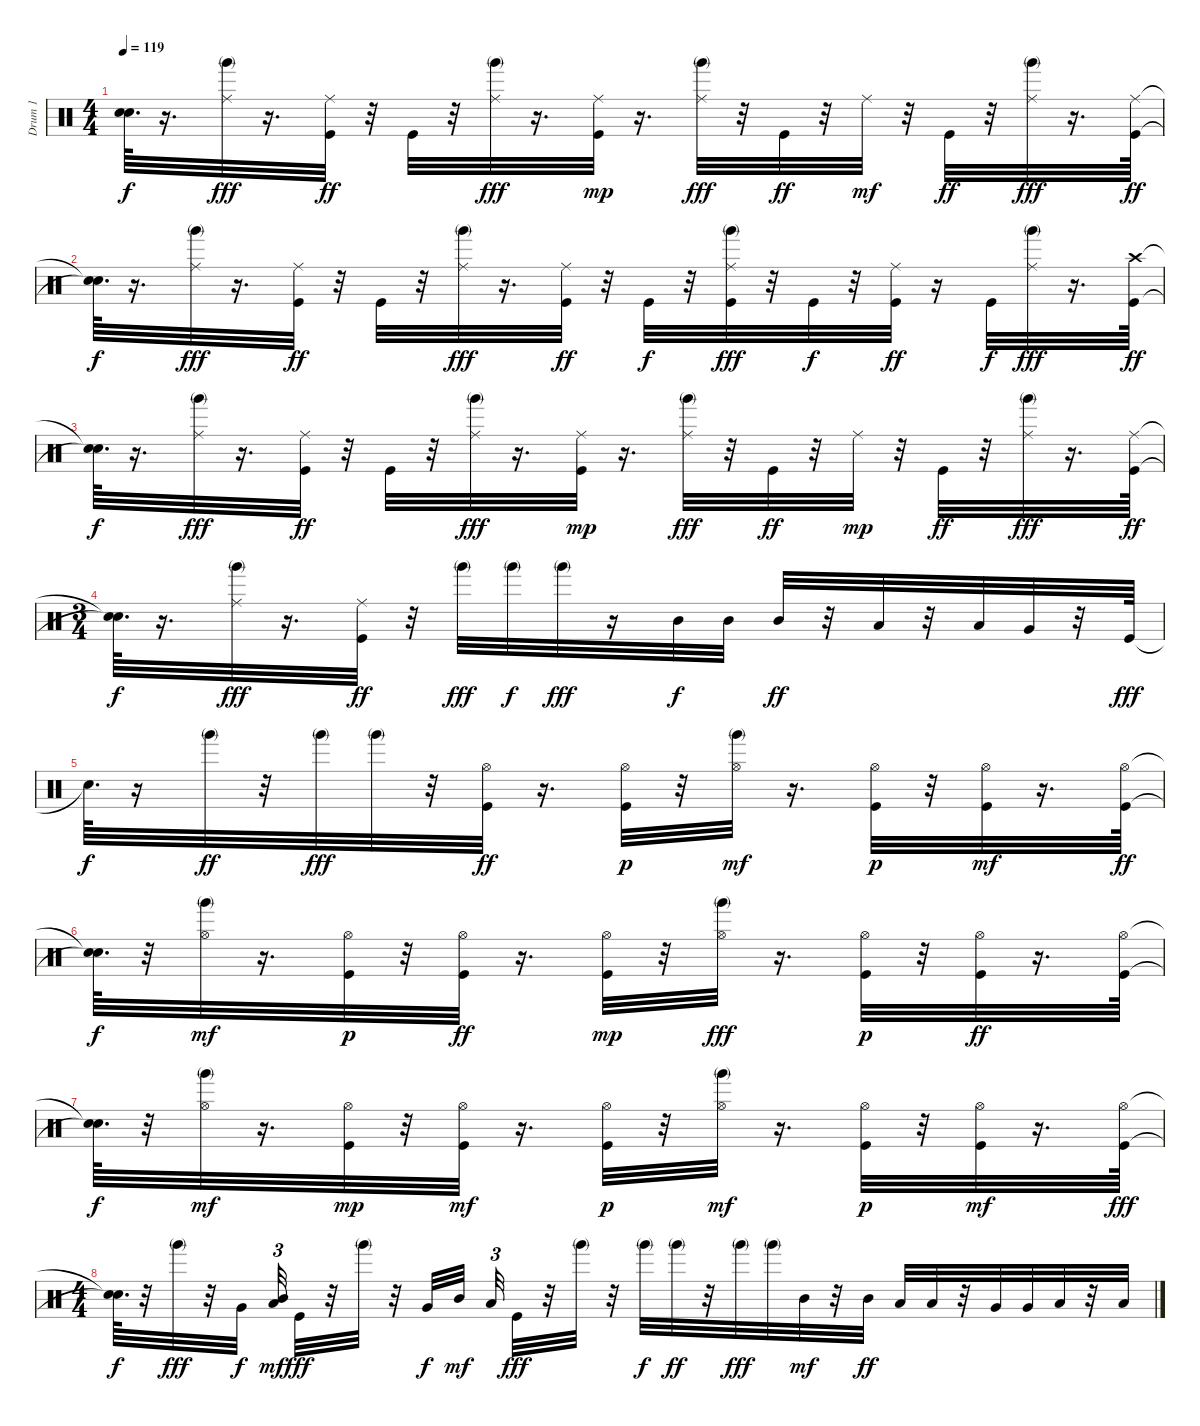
\track ("Drum 1                          " "Drum 1    ") {instrument percussion}
\staff {score}
\articulation defaults
\ts (4 4)
\tempo 119
\clef neutral
\ks c
("Snare (hit)"{t} "Snare (hit)"{t}).64{d dy f} r.16{d} ("Ride (middle)" "Hand (mute) 2").32{dy fff} r.16{d} ("Ride (middle)" "Kick (hit)").32{dy ff} r.32 "Kick (hit)".32 r.32 ("Ride (middle)" "Hand (mute) 2").32{dy fff} r.16{d} ("Kick (hit)" "Ride (middle)").32{dy mp} r.16{d} ("Ride (middle)" "Hand (mute) 2").32{dy fff} r.32 "Kick (hit)".32{dy ff} r.32 "Ride (middle)".32{dy mf} r.32 "Kick (hit)".32{dy ff} r.32 ("Ride (middle)" "Hand (mute) 2").32{dy fff} r.16{d} ("Ride (middle)" "Kick (hit)").64{dy ff} |
("Snare (hit)"{t} "Snare (hit)"{t}).64{d dy f} r.16{d} ("Ride (middle)" "Hand (mute) 2").32{dy fff} r.16{d} ("Ride (middle)" "Kick (hit)").32{dy ff} r.32 "Kick (hit)".32 r.32 ("Ride (middle)" "Hand (mute) 2").32{dy fff} r.16{d} ("Ride (middle)" "Kick (hit)").32{dy ff} r.32 "Kick (hit)".32{dy f} r.32 ("Kick (hit)" "Ride (middle)" "Hand (mute) 2").32{dy fff} r.32 "Kick (hit)".32{dy f} r.32 ("Ride (middle)" "Kick (hit)").32{dy ff} r.16 "Kick (hit)".32{dy f} ("Ride (middle)" "Hand (mute) 2").32{dy fff} r.16{d} ("Kick (hit)" "Crash high (hit)").64{dy ff} |
("Snare (hit)"{t} "Snare (hit)"{t}).64{d dy f} r.16{d} ("Ride (middle)" "Hand (mute) 2").32{dy fff} r.16{d} ("Ride (middle)" "Kick (hit)").32{dy ff} r.32 "Kick (hit)".32 r.32 ("Ride (middle)" "Hand (mute) 2").32{dy fff} r.16{d} ("Kick (hit)" "Ride (middle)").32{dy mp} r.16{d} ("Ride (middle)" "Hand (mute) 2").32{dy fff} r.32 "Kick (hit)".32{dy ff} r.32 "Ride (middle)".32{dy mp} r.32 "Kick (hit)".32{dy ff} r.32 ("Ride (middle)" "Hand (mute) 2").32{dy fff} r.16{d} ("Ride (middle)" "Kick (hit)").64{dy ff} |
\ts (3 4)
("Snare (hit)"{t} "Snare (hit)"{t}).64{d dy f} r.16{d} ("Ride (middle)" "Hand (mute) 2").32{dy fff} r.16{d} ("Ride (middle)" "Kick (hit)").32{dy ff} r.32 "Hand (mute) 2".32{dy fff} "Hand (mute) 2".32{dy f} "Hand (mute) 2".32{dy fff} r.16 "Mid Tom (hit)".32{dy f} "Mid Tom (hit)".32 "Mid Tom (hit)".32{dy ff} r.32 "Low Tom (hit)".32 r.32 "Low Floor Tom (hit)".32 "Very Low Tom (hit)".32 r.32 "Kick (hit)".64{dy fff} |
"Snare (hit)"{t}.64{d dy f} r.16 "Hand (mute) 2".32{dy ff} r.32 "Hand (mute) 2".32{dy fff} "Hand (mute) 2".32 r.32 ("Hi-Hat (open)" "Kick (hit)").32{dy ff} r.16{d} ("Hi-Hat (open)" "Kick (hit)").32{dy p} r.32 ("Hand (mute) 2" "Hi-Hat (open)").32{dy mf} r.16{d} ("Hi-Hat (open)" "Kick (hit)").32{dy p} r.32 ("Kick (hit)" "Hi-Hat (open)").32{dy mf} r.16{d} ("Hi-Hat (open)" "Kick (hit)").64{dy ff} |
("Snare (hit)"{t} "Snare (hit)"{t}).64{d dy f} r.32 ("Hand (mute) 2" "Hi-Hat (open)").32{dy mf} r.16{d} ("Hi-Hat (open)" "Kick (hit)").32{dy p} r.32 ("Hi-Hat (open)" "Kick (hit)").32{dy ff} r.16{d} ("Hi-Hat (open)" "Kick (hit)").32{dy mp} r.32 ("Hi-Hat (open)" "Hand (mute) 2").32{dy fff} r.16{d} ("Hi-Hat (open)" "Kick (hit)").32{dy p} r.32 ("Hi-Hat (open)" "Kick (hit)").32{dy ff} r.16{d} ("Hi-Hat (open)" "Kick (hit)").64 |
("Snare (hit)"{t} "Snare (hit)"{t}).64{d dy f} r.32 ("Hand (mute) 2" "Hi-Hat (open)").32{dy mf} r.16{d} ("Kick (hit)" "Hi-Hat (open)").32{dy mp} r.32 ("Kick (hit)" "Hi-Hat (open)").32{dy mf} r.16{d} ("Kick (hit)" "Hi-Hat (open)").32{dy p} r.32 ("Hand (mute) 2" "Hi-Hat (open)").32{dy mf} r.16{d} ("Kick (hit)" "Hi-Hat (open)").32{dy p} r.32 ("Kick (hit)" "Hi-Hat (open)").32{dy mf} r.16{d} ("Hi-Hat (open)" "Kick (hit)").64{dy fff} |
\ts (4 4)
("Snare (hit)"{t} "Snare (hit)"{t}).64{d dy f} r.32 "Hand (mute) 2".32{dy fff} r.32 "Very Low Tom (hit)".32{dy f} ("Mid Tom (hit)" "Low Floor Tom (hit)").32{tu (3 2) dy mf} "Kick (hit)".32{dy fff} r.32 "Hand (mute) 2".32 r.32 "Very Low Tom (hit)".32{dy f} "Mid Tom (hit)".32{dy mf} "Low Floor Tom (hit)".32{tu (3 2)} "Kick (hit)".32{dy fff} r.32 "Hand (mute) 2".32 r.32 "Hand (mute) 2".32{dy f} "Hand (mute) 2".32{dy ff} r.32 "Hand (mute) 2".32{dy fff} "Hand (mute) 2".32 "Mid Tom (hit)".32{dy mf} r.32 "Mid Tom (hit)".32{dy ff} "Low Tom (hit)".32 "Low Tom (hit)".32 r.32 "Very Low Tom (hit)".32 "Very Low Tom (hit)".32 "Low Floor Tom (hit)".32 r.32 "Low Floor Tom (hit)".32
